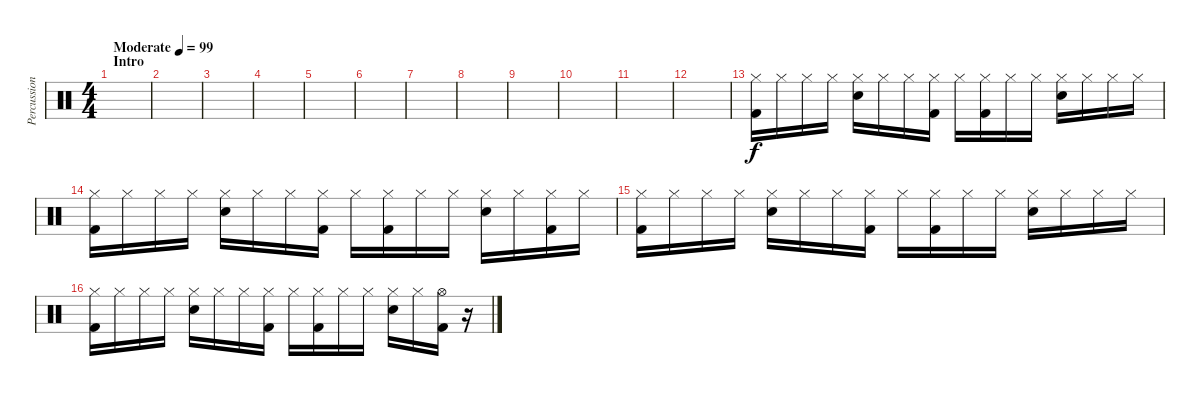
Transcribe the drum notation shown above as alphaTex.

\track ("Percussion" "Percussion") {instrument percussion}
\staff {score}
\articulation defaults
\ts (4 4)
\section ("" "Intro")
\tempo (99 "Moderate")
\clef neutral
\ks c
|
|
|
|
|
|
|
|
|
|
|
|
("Hi-Hat (closed)" "Kick (hit) 2").16 "Hi-Hat (closed)".16 "Hi-Hat (closed)".16 "Hi-Hat (closed)".16 ("Hi-Hat (closed)" "Snare (hit) 2").16 "Hi-Hat (closed)".16 "Hi-Hat (closed)".16 ("Hi-Hat (closed)" "Kick (hit) 2").16 "Hi-Hat (closed)".16 ("Hi-Hat (closed)" "Kick (hit) 2").16 "Hi-Hat (closed)".16 "Hi-Hat (closed)".16 ("Hi-Hat (closed)" "Snare (hit) 2").16 "Hi-Hat (closed)".16 "Hi-Hat (closed)".16 "Hi-Hat (closed)".16 |
("Hi-Hat (closed)" "Kick (hit) 2").16 "Hi-Hat (closed)".16 "Hi-Hat (closed)".16 "Hi-Hat (closed)".16 ("Hi-Hat (closed)" "Snare (hit) 2").16 "Hi-Hat (closed)".16 "Hi-Hat (closed)".16 ("Hi-Hat (closed)" "Kick (hit) 2").16 "Hi-Hat (closed)".16 ("Hi-Hat (closed)" "Kick (hit) 2").16 "Hi-Hat (closed)".16 "Hi-Hat (closed)".16 ("Hi-Hat (closed)" "Snare (hit) 2").16 "Hi-Hat (closed)".16 ("Hi-Hat (closed)" "Kick (hit) 2").16 "Hi-Hat (closed)".16 |
("Hi-Hat (closed)" "Kick (hit) 2").16 "Hi-Hat (closed)".16 "Hi-Hat (closed)".16 "Hi-Hat (closed)".16 ("Hi-Hat (closed)" "Snare (hit) 2").16 "Hi-Hat (closed)".16 "Hi-Hat (closed)".16 ("Hi-Hat (closed)" "Kick (hit) 2").16 "Hi-Hat (closed)".16 ("Hi-Hat (closed)" "Kick (hit) 2").16 "Hi-Hat (closed)".16 "Hi-Hat (closed)".16 ("Hi-Hat (closed)" "Snare (hit) 2").16 "Hi-Hat (closed)".16 "Hi-Hat (closed)".16 "Hi-Hat (closed)".16 |
("Hi-Hat (closed)" "Kick (hit) 2").16 "Hi-Hat (closed)".16 "Hi-Hat (closed)".16 "Hi-Hat (closed)".16 ("Hi-Hat (closed)" "Snare (hit) 2").16 "Hi-Hat (closed)".16 "Hi-Hat (closed)".16 ("Hi-Hat (closed)" "Kick (hit) 2").16 "Hi-Hat (closed)".16 ("Hi-Hat (closed)" "Kick (hit) 2").16 "Hi-Hat (closed)".16 "Hi-Hat (closed)".16 ("Hi-Hat (closed)" "Snare (hit) 2").16 "Hi-Hat (closed)".16 ("Hi-Hat (open)" "Kick (hit) 2").16 r.16
